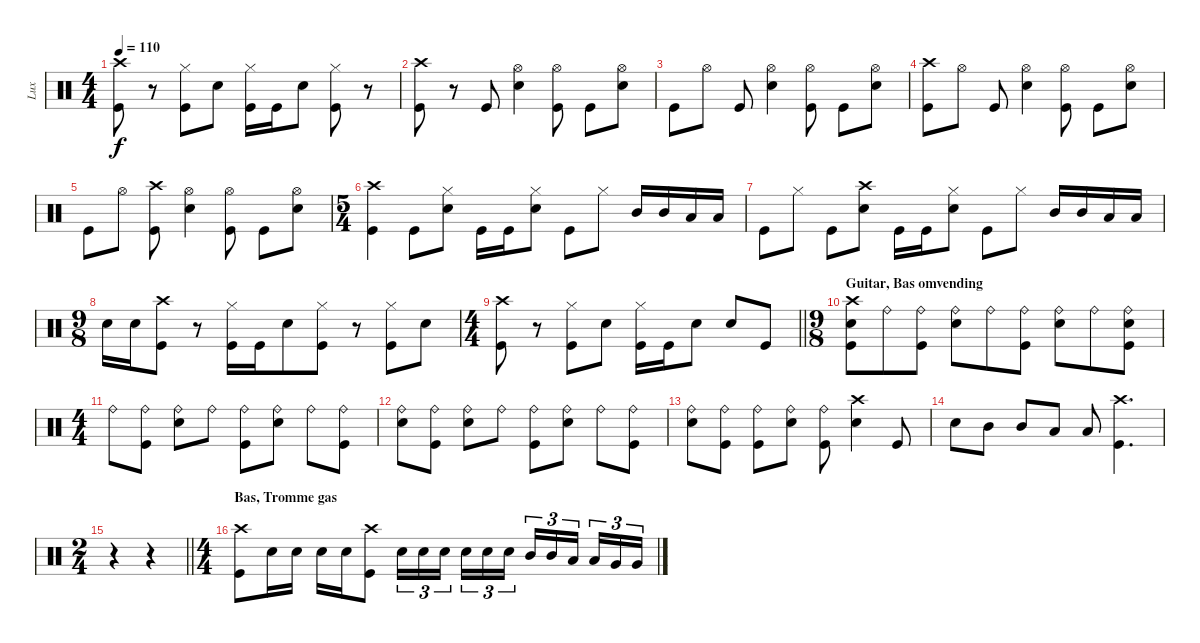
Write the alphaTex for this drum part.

\track ("Lux" "Lux") {instrument percussion}
\staff {score}
\articulation defaults
\ts (4 4)
\tempo 110
\clef neutral
\ks c
("Crash high (hit)" "Kick (hit)").8{dy f} r.8 ("Hi-Hat (closed)" "Kick (hit)").8 "Snare (hit) 2".8 ("Hi-Hat (closed)" "Kick (hit)").16 "Kick (hit)".16 "Snare (hit) 2".8 ("Hi-Hat (closed)" "Kick (hit)").8 r.8 |
("Crash high (hit)" "Kick (hit)").8 r.8 "Kick (hit)".8 ("Hi-Hat (open)" "Snare (hit) 2").4 ("Hi-Hat (open)" "Kick (hit)").8 "Kick (hit)".8 ("Hi-Hat (open)" "Snare (hit) 2").8 |
"Kick (hit)".8 "Hi-Hat (open)".8 "Kick (hit)".8 ("Hi-Hat (open)" "Snare (hit) 2").4 ("Hi-Hat (open)" "Kick (hit)").8 "Kick (hit)".8 ("Hi-Hat (open)" "Snare (hit) 2").8 |
("Crash high (hit)" "Kick (hit)").8 "Hi-Hat (open)".8 "Kick (hit)".8 ("Hi-Hat (open)" "Snare (hit) 2").4 ("Hi-Hat (open)" "Kick (hit)").8 "Kick (hit)".8 ("Hi-Hat (open)" "Snare (hit) 2").8 |
"Kick (hit)".8 "Hi-Hat (open)".8 ("Crash high (hit)" "Kick (hit)").8 ("Hi-Hat (open)" "Snare (hit) 2").4 ("Hi-Hat (open)" "Kick (hit)").8 "Kick (hit)".8 ("Hi-Hat (open)" "Snare (hit) 2").8 |
\ts (5 4)
("Crash high (hit)" "Kick (hit)").4 "Kick (hit)".8 ("Hi-Hat (closed)" "Snare (hit) 2").8 "Kick (hit)".16 "Kick (hit)".16 ("Hi-Hat (closed)" "Snare (hit) 2").8 "Kick (hit)".8 "Hi-Hat (closed)".8 "Mid Tom (hit)".16 "Mid Tom (hit)".16 "Low Tom (hit)".16 "Low Tom (hit)".16 |
"Kick (hit)".8 "Hi-Hat (closed)".8 "Kick (hit)".8 ("Crash high (hit)" "Snare (hit) 2").8 "Kick (hit)".16 "Kick (hit)".16 ("Hi-Hat (closed)" "Snare (hit) 2").8 "Kick (hit)".8 "Hi-Hat (closed)".8 "Mid Tom (hit)".16 "Mid Tom (hit)".16 "Low Tom (hit)".16 "Low Tom (hit)".16 |
\ts (9 8)
"Snare (hit) 2".16 "Snare (hit) 2".16 ("Crash high (hit)" "Kick (hit)").8 r.8 ("Hi-Hat (closed)" "Kick (hit)").16 "Kick (hit)".16 "Snare (hit) 2".8 ("Hi-Hat (closed)" "Kick (hit)").8 r.8 ("Hi-Hat (closed)" "Kick (hit)").8 "Snare (hit) 2".8 |
\ts (4 4)
\barLineRight lightlight
("Crash high (hit)" "Kick (hit)").8 r.8 ("Hi-Hat (closed)" "Kick (hit)").8 "Snare (hit) 2".8 ("Hi-Hat (closed)" "Kick (hit)").16 "Kick (hit)".16 "Snare (hit) 2".8 "Snare (hit) 2".8 "Kick (hit)".8 |
\ts (9 8)
\section ("" "Guitar, Bas omvending")
("Crash high (hit)" "Snare (hit) 2" "Kick (hit)").8 "Ride (bell)".8 ("Ride (bell)" "Kick (hit)").8 ("Ride (bell)" "Snare (hit) 2").8 "Ride (bell)".8 ("Ride (bell)" "Kick (hit)").8 ("Ride (bell)" "Snare (hit) 2").8 "Ride (bell)".8 ("Ride (bell)" "Snare (hit) 2" "Kick (hit)").8 |
\ts (4 4)
"Ride (bell)".8 ("Ride (bell)" "Kick (hit)").8 ("Ride (bell)" "Snare (hit) 2").8 "Ride (bell)".8 ("Ride (bell)" "Kick (hit)").8 ("Ride (bell)" "Snare (hit) 2").8 "Ride (bell)".8 ("Ride (bell)" "Kick (hit)").8 |
("Ride (bell)" "Snare (hit) 2").8 ("Ride (bell)" "Kick (hit)").8 ("Ride (bell)" "Snare (hit) 2").8 "Ride (bell)".8 ("Ride (bell)" "Kick (hit)").8 ("Ride (bell)" "Snare (hit) 2").8 "Ride (bell)".8 ("Ride (bell)" "Kick (hit)").8 |
("Ride (bell)" "Snare (hit) 2").8 ("Ride (bell)" "Kick (hit)").8 ("Ride (bell)" "Kick (hit)").8 ("Ride (bell)" "Snare (hit) 2").8 ("Ride (bell)" "Kick (hit)").8 ("Crash high (hit)" "Snare (hit) 2").4 "Kick (hit)".8 |
"Snare (hit) 2".8 "Mid Tom (hit)".8 "Mid Tom (hit)".8 "Low Tom (hit)".8 "Low Tom (hit)".8 ("Crash high (hit)" "Kick (hit)").4{d} |
\ts (2 4)
\barLineRight lightlight
r.4 r.4 |
\ts (4 4)
\section ("" "Bas, Tromme gas")
("Crash high (hit)" "Kick (hit)").8 "Snare (hit) 2".16 "Snare (hit) 2".16 "Snare (hit) 2".16 "Snare (hit) 2".16 ("Crash high (hit)" "Kick (hit)").8 "Snare (hit) 2".16{tu (3 2)} "Snare (hit) 2".16{tu (3 2)} "Snare (hit) 2".16{tu (3 2) beam splitsecondary} "Snare (hit) 2".16{tu (3 2)} "Snare (hit) 2".16{tu (3 2)} "Snare (hit) 2".16{tu (3 2)} "Mid Tom (hit)".16{tu (3 2)} "Mid Tom (hit)".16{tu (3 2)} "Low Tom (hit)".16{tu (3 2) beam splitsecondary} "Low Tom (hit)".16{tu (3 2)} "Very Low Tom (hit)".16{tu (3 2)} "Very Low Tom (hit)".16{tu (3 2)}
